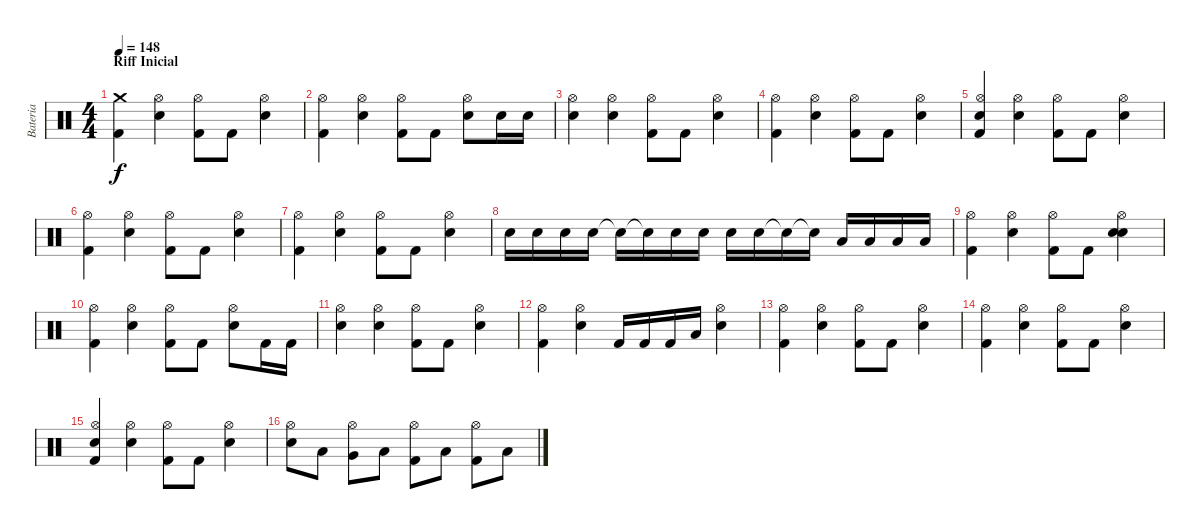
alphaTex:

\track ("Bateria" "Bateria") {instrument percussion}
\staff {score}
\articulation defaults
\ts (4 4)
\section ("" "Riff Inicial")
\tempo 148
\clef neutral
\ks c
("Crash medium (hit)" "Kick (hit) 2").4{dy f} ("Hi-Hat (open)" "Electric Snare (hit)").4 ("Hi-Hat (open)" "Kick (hit) 2").8 "Kick (hit) 2".8 ("Hi-Hat (open)" "Electric Snare (hit)").4 |
("Hi-Hat (open)" "Kick (hit) 2").4 ("Hi-Hat (open)" "Electric Snare (hit)").4 ("Hi-Hat (open)" "Kick (hit) 2").8 "Kick (hit) 2".8 ("Hi-Hat (open)" "Electric Snare (hit)").8 "Electric Snare (hit)".16 "Electric Snare (hit)".16 |
("Hi-Hat (open)" "Electric Snare (hit)").4 ("Hi-Hat (open)" "Electric Snare (hit)").4 ("Hi-Hat (open)" "Kick (hit) 2").8 "Kick (hit) 2".8 ("Hi-Hat (open)" "Electric Snare (hit)").4 |
("Hi-Hat (open)" "Kick (hit) 2").4 ("Hi-Hat (open)" "Electric Snare (hit)").4 ("Hi-Hat (open)" "Kick (hit) 2").8 "Kick (hit) 2".8 ("Hi-Hat (open)" "Electric Snare (hit)").4 |
("Hi-Hat (open)" "Electric Snare (hit)" "Kick (hit) 2").4 ("Hi-Hat (open)" "Electric Snare (hit)").4 ("Hi-Hat (open)" "Kick (hit) 2").8 "Kick (hit) 2".8 ("Hi-Hat (open)" "Electric Snare (hit)").4 |
("Hi-Hat (open)" "Kick (hit) 2").4 ("Hi-Hat (open)" "Electric Snare (hit)").4 ("Hi-Hat (open)" "Kick (hit) 2").8 "Kick (hit) 2".8 ("Hi-Hat (open)" "Electric Snare (hit)").4 |
("Hi-Hat (open)" "Kick (hit) 2").4 ("Hi-Hat (open)" "Electric Snare (hit)").4 ("Hi-Hat (open)" "Kick (hit) 2").8 "Kick (hit) 2".8 ("Hi-Hat (open)" "Electric Snare (hit)").4 |
"Electric Snare (hit)".16 "Electric Snare (hit)".16 "Electric Snare (hit)".16 "Electric Snare (hit)".16 "Snare (hit)"{t}.16 "Snare (hit)"{t}.16 "Electric Snare (hit)".16 "Electric Snare (hit)".16 "Electric Snare (hit)".16 "Electric Snare (hit)".16 "Snare (hit)"{t}.16 "Snare (hit)"{t}.16 "Low Tom (hit)".16 "Low Tom (hit)".16 "Low Tom (hit)".16 "Low Tom (hit)".16 |
("Hi-Hat (open)" "Kick (hit) 2").4 ("Hi-Hat (open)" "Electric Snare (hit)").4 ("Hi-Hat (open)" "Kick (hit) 2").8 "Kick (hit) 2".8 ("Hi-Hat (open)" "Electric Snare (hit)" "Electric Snare (hit)").4 |
("Hi-Hat (open)" "Kick (hit) 2").4 ("Hi-Hat (open)" "Electric Snare (hit)").4 ("Hi-Hat (open)" "Kick (hit) 2").8 "Kick (hit) 2".8 ("Hi-Hat (open)" "Electric Snare (hit)").8 "Kick (hit) 2".16 "Kick (hit) 2".16 |
("Hi-Hat (open)" "Electric Snare (hit)").4 ("Hi-Hat (open)" "Electric Snare (hit)").4 ("Hi-Hat (open)" "Kick (hit) 2").8 "Kick (hit) 2".8 ("Hi-Hat (open)" "Electric Snare (hit)").4 |
("Hi-Hat (open)" "Kick (hit) 2").4 ("Hi-Hat (open)" "Electric Snare (hit)").4 "Kick (hit) 2".16 "Kick (hit) 2".16 "Kick (hit) 2".16 "Low Tom (hit)".16 ("Hi-Hat (open)" "Electric Snare (hit)").4 |
("Hi-Hat (open)" "Kick (hit) 2").4 ("Hi-Hat (open)" "Electric Snare (hit)").4 ("Hi-Hat (open)" "Kick (hit) 2").8 "Kick (hit) 2".8 ("Hi-Hat (open)" "Electric Snare (hit)").4 |
("Hi-Hat (open)" "Kick (hit) 2").4 ("Hi-Hat (open)" "Electric Snare (hit)").4 ("Hi-Hat (open)" "Kick (hit) 2").8 "Kick (hit) 2".8 ("Hi-Hat (open)" "Electric Snare (hit)").4 |
("Hi-Hat (open)" "Electric Snare (hit)" "Kick (hit) 2").4 ("Hi-Hat (open)" "Electric Snare (hit)").4 ("Hi-Hat (open)" "Kick (hit) 2").8 "Kick (hit) 2".8 ("Hi-Hat (open)" "Electric Snare (hit)").4 |
("Hi-Hat (open)" "Electric Snare (hit)").8 "Low Tom (hit)".8 ("Hi-Hat (open)" "Very Low Tom (hit)").8 "Low Tom (hit)".8 ("Hi-Hat (open)" "Kick (hit) 2").8 "Low Tom (hit)".8 ("Hi-Hat (open)" "Kick (hit) 2").8 "Low Tom (hit)".8
